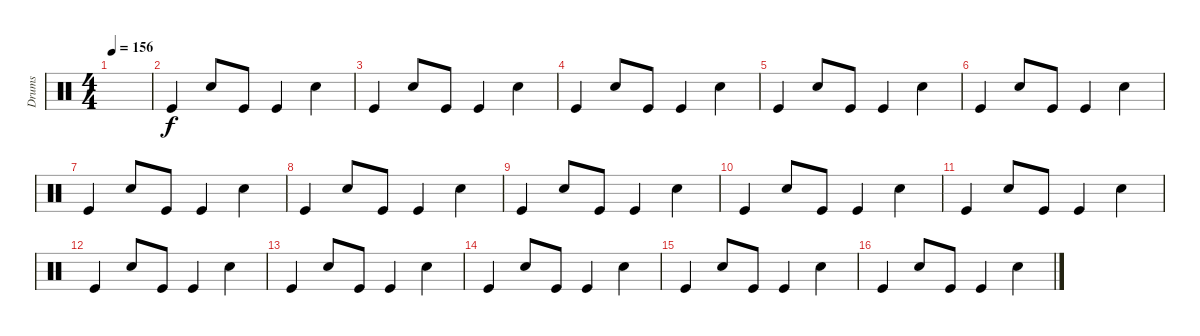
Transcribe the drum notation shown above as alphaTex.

\track ("Drums" "Drums") {instrument percussion}
\staff {score}
\articulation defaults
\ts (4 4)
\tempo 156
\clef neutral
\ks c
|
"Kick (hit)".4 "Snare (hit) 2".8 "Kick (hit)".8 "Kick (hit)".4 "Snare (hit) 2".4 |
"Kick (hit)".4 "Snare (hit) 2".8 "Kick (hit)".8 "Kick (hit)".4 "Snare (hit) 2".4 |
"Kick (hit)".4 "Snare (hit) 2".8 "Kick (hit)".8 "Kick (hit)".4 "Snare (hit) 2".4 |
"Kick (hit)".4 "Snare (hit) 2".8 "Kick (hit)".8 "Kick (hit)".4 "Snare (hit) 2".4 |
"Kick (hit)".4 "Snare (hit) 2".8 "Kick (hit)".8 "Kick (hit)".4 "Snare (hit) 2".4 |
"Kick (hit)".4 "Snare (hit) 2".8 "Kick (hit)".8 "Kick (hit)".4 "Snare (hit) 2".4 |
"Kick (hit)".4 "Snare (hit) 2".8 "Kick (hit)".8 "Kick (hit)".4 "Snare (hit) 2".4 |
"Kick (hit)".4 "Snare (hit) 2".8 "Kick (hit)".8 "Kick (hit)".4 "Snare (hit) 2".4 |
"Kick (hit)".4 "Snare (hit) 2".8 "Kick (hit)".8 "Kick (hit)".4 "Snare (hit) 2".4 |
"Kick (hit)".4 "Snare (hit) 2".8 "Kick (hit)".8 "Kick (hit)".4 "Snare (hit) 2".4 |
"Kick (hit)".4 "Snare (hit) 2".8 "Kick (hit)".8 "Kick (hit)".4 "Snare (hit) 2".4 |
"Kick (hit)".4 "Snare (hit) 2".8 "Kick (hit)".8 "Kick (hit)".4 "Snare (hit) 2".4 |
"Kick (hit)".4 "Snare (hit) 2".8 "Kick (hit)".8 "Kick (hit)".4 "Snare (hit) 2".4 |
"Kick (hit)".4 "Snare (hit) 2".8 "Kick (hit)".8 "Kick (hit)".4 "Snare (hit) 2".4 |
"Kick (hit)".4 "Snare (hit) 2".8 "Kick (hit)".8 "Kick (hit)".4 "Snare (hit) 2".4
